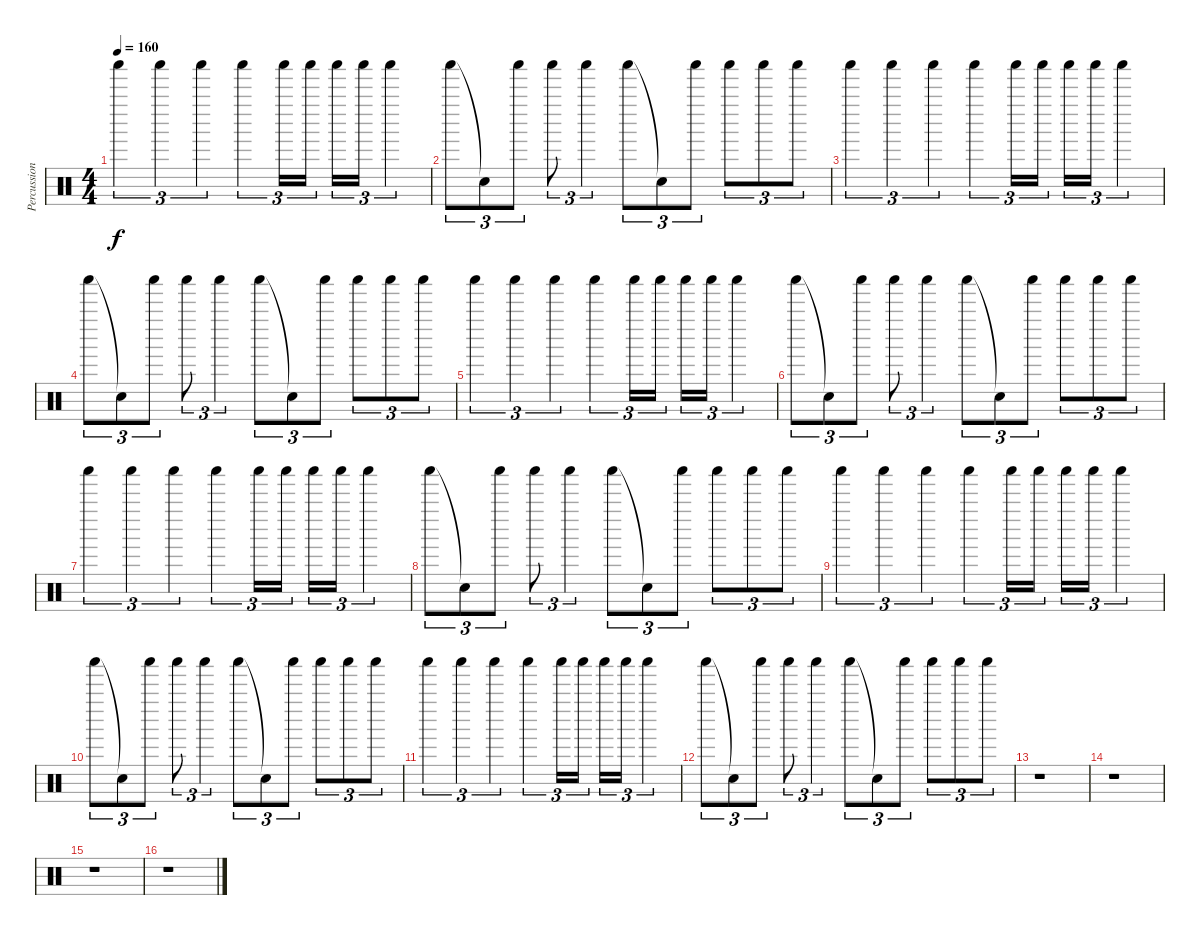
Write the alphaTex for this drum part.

\track ("Percussion" "Percussion") {instrument percussion}
\staff {score}
\articulation defaults
\ts (4 4)
\tempo 160
\clef neutral
\ks c "Shaker (hit)".4{tu (3 2) dy f} "Shaker (hit)".4{tu (3 2)} "Shaker (hit)".4{tu (3 2)} "Shaker (hit)".4{tu (3 2)} "Shaker (hit)".16{tu (3 2)} "Shaker (hit)".16{tu (3 2)} "Shaker (hit)".16{tu (3 2)} "Shaker (hit)".16{tu (3 2)} "Shaker (hit)".4{tu (3 2)}
|
"Shaker (hit)".8{tu (3 2)} "Snare (hit)"{t}.8{tu (3 2)} "Shaker (hit)".8{tu (3 2)} "Shaker (hit)".8{tu (3 2)} "Shaker (hit)".4{tu (3 2)} "Shaker (hit)".8{tu (3 2)} "Snare (hit)"{t}.8{tu (3 2)} "Shaker (hit)".8{tu (3 2)} "Shaker (hit)".8{tu (3 2)} "Shaker (hit)".8{tu (3 2)} "Shaker (hit)".8{tu (3 2)} |
"Shaker (hit)".4{tu (3 2)} "Shaker (hit)".4{tu (3 2)} "Shaker (hit)".4{tu (3 2)} "Shaker (hit)".4{tu (3 2)} "Shaker (hit)".16{tu (3 2)} "Shaker (hit)".16{tu (3 2)} "Shaker (hit)".16{tu (3 2)} "Shaker (hit)".16{tu (3 2)} "Shaker (hit)".4{tu (3 2)} |
"Shaker (hit)".8{tu (3 2)} "Snare (hit)"{t}.8{tu (3 2)} "Shaker (hit)".8{tu (3 2)} "Shaker (hit)".8{tu (3 2)} "Shaker (hit)".4{tu (3 2)} "Shaker (hit)".8{tu (3 2)} "Snare (hit)"{t}.8{tu (3 2)} "Shaker (hit)".8{tu (3 2)} "Shaker (hit)".8{tu (3 2)} "Shaker (hit)".8{tu (3 2)} "Shaker (hit)".8{tu (3 2)} |
"Shaker (hit)".4{tu (3 2)} "Shaker (hit)".4{tu (3 2)} "Shaker (hit)".4{tu (3 2)} "Shaker (hit)".4{tu (3 2)} "Shaker (hit)".16{tu (3 2)} "Shaker (hit)".16{tu (3 2)} "Shaker (hit)".16{tu (3 2)} "Shaker (hit)".16{tu (3 2)} "Shaker (hit)".4{tu (3 2)} |
"Shaker (hit)".8{tu (3 2)} "Snare (hit)"{t}.8{tu (3 2)} "Shaker (hit)".8{tu (3 2)} "Shaker (hit)".8{tu (3 2)} "Shaker (hit)".4{tu (3 2)} "Shaker (hit)".8{tu (3 2)} "Snare (hit)"{t}.8{tu (3 2)} "Shaker (hit)".8{tu (3 2)} "Shaker (hit)".8{tu (3 2)} "Shaker (hit)".8{tu (3 2)} "Shaker (hit)".8{tu (3 2)} |
"Shaker (hit)".4{tu (3 2)} "Shaker (hit)".4{tu (3 2)} "Shaker (hit)".4{tu (3 2)} "Shaker (hit)".4{tu (3 2)} "Shaker (hit)".16{tu (3 2)} "Shaker (hit)".16{tu (3 2)} "Shaker (hit)".16{tu (3 2)} "Shaker (hit)".16{tu (3 2)} "Shaker (hit)".4{tu (3 2)} |
"Shaker (hit)".8{tu (3 2)} "Snare (hit)"{t}.8{tu (3 2)} "Shaker (hit)".8{tu (3 2)} "Shaker (hit)".8{tu (3 2)} "Shaker (hit)".4{tu (3 2)} "Shaker (hit)".8{tu (3 2)} "Snare (hit)"{t}.8{tu (3 2)} "Shaker (hit)".8{tu (3 2)} "Shaker (hit)".8{tu (3 2)} "Shaker (hit)".8{tu (3 2)} "Shaker (hit)".8{tu (3 2)} |
"Shaker (hit)".4{tu (3 2)} "Shaker (hit)".4{tu (3 2)} "Shaker (hit)".4{tu (3 2)} "Shaker (hit)".4{tu (3 2)} "Shaker (hit)".16{tu (3 2)} "Shaker (hit)".16{tu (3 2)} "Shaker (hit)".16{tu (3 2)} "Shaker (hit)".16{tu (3 2)} "Shaker (hit)".4{tu (3 2)} |
"Shaker (hit)".8{tu (3 2)} "Snare (hit)"{t}.8{tu (3 2)} "Shaker (hit)".8{tu (3 2)} "Shaker (hit)".8{tu (3 2)} "Shaker (hit)".4{tu (3 2)} "Shaker (hit)".8{tu (3 2)} "Snare (hit)"{t}.8{tu (3 2)} "Shaker (hit)".8{tu (3 2)} "Shaker (hit)".8{tu (3 2)} "Shaker (hit)".8{tu (3 2)} "Shaker (hit)".8{tu (3 2)} |
"Shaker (hit)".4{tu (3 2)} "Shaker (hit)".4{tu (3 2)} "Shaker (hit)".4{tu (3 2)} "Shaker (hit)".4{tu (3 2)} "Shaker (hit)".16{tu (3 2)} "Shaker (hit)".16{tu (3 2)} "Shaker (hit)".16{tu (3 2)} "Shaker (hit)".16{tu (3 2)} "Shaker (hit)".4{tu (3 2)} |
"Shaker (hit)".8{tu (3 2)} "Snare (hit)"{t}.8{tu (3 2)} "Shaker (hit)".8{tu (3 2)} "Shaker (hit)".8{tu (3 2)} "Shaker (hit)".4{tu (3 2)} "Shaker (hit)".8{tu (3 2)} "Snare (hit)"{t}.8{tu (3 2)} "Shaker (hit)".8{tu (3 2)} "Shaker (hit)".8{tu (3 2)} "Shaker (hit)".8{tu (3 2)} "Shaker (hit)".8{tu (3 2)} |
r.1 |
r.1 |
r.1 |
r.1
